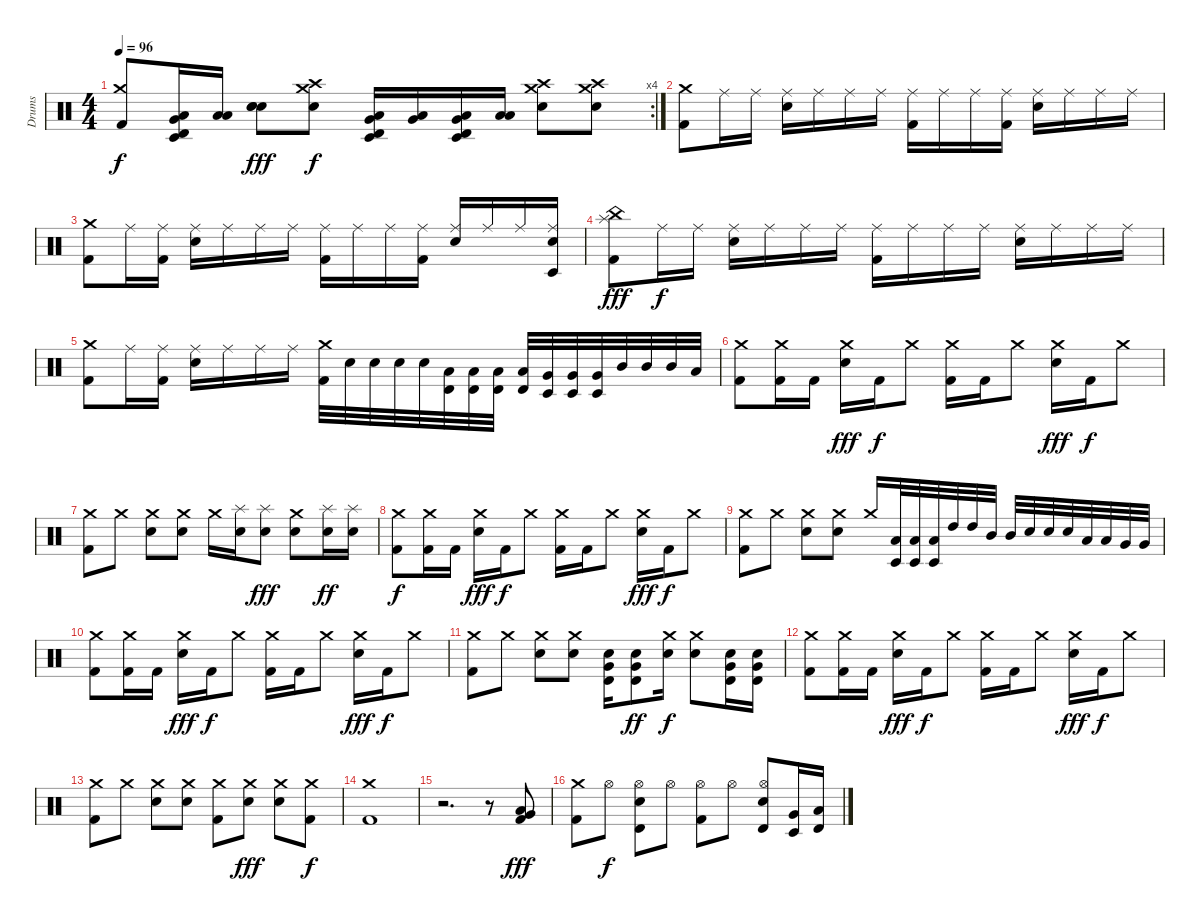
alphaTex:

\track ("Drums" "Drums") {instrument percussion}
\staff {score}
\articulation defaults
\rc 4
\ts (4 4)
\tempo 96
\clef neutral
\ks c
("Kick (hit) 2" "Crash medium (hit)").8{dy f} ("Timbale low (hit)" "Timbale high (hit)" "Low Tom (hit)" "Very Low Tom (hit)").16 ("Low Tom (hit)" "Low Tom (hit)").16 ("Electric Snare (hit)" "Electric Snare (hit)" "Electric Snare (hit)").8{dy fff} ("Electric Snare (hit)" "Crash medium (hit)" "Crash high (hit)").8{dy f} ("Timbale low (hit)" "Timbale high (hit)" "Low Tom (hit)" "Very Low Tom (hit)").16 ("Low Tom (hit)" "Very Low Tom (hit)").16 ("Timbale low (hit)" "Timbale high (hit)" "Low Tom (hit)" "Very Low Tom (hit)").16 ("Low Tom (hit)" "Low Tom (hit)").16 ("Electric Snare (hit)" "Crash medium (hit)" "Crash high (hit)").8 ("Electric Snare (hit)" "Crash medium (hit)" "Crash high (hit)").8 |
("Kick (hit) 2" "Crash medium (hit)").8 "Ride (middle)".16 "Ride (middle)".16 ("Electric Snare (hit)" "Ride (middle)").16 "Ride (middle)".16 "Ride (middle)".16 "Ride (middle)".16 ("Kick (hit) 2" "Ride (middle)").16 "Ride (middle)".16 "Ride (middle)".16 ("Kick (hit) 2" "Ride (middle)").16 ("Electric Snare (hit)" "Ride (middle)").16 "Ride (middle)".16 "Ride (middle)".16 "Ride (middle)".16 |
("Kick (hit) 2" "Crash medium (hit)").8 "Ride (middle)".16 ("Kick (hit) 2" "Ride (middle)").16 ("Electric Snare (hit)" "Ride (middle)").16 "Ride (middle)".16 "Ride (middle)".16 "Ride (middle)".16 ("Kick (hit) 2" "Ride (middle)").16 "Ride (middle)".16 "Ride (middle)".16 ("Kick (hit) 2" "Ride (middle)").16 ("Electric Snare (hit)" "Ride (middle)").16 "Ride (middle)".16 "Ride (middle)".16 ("Timbale low (hit)" "Electric Snare (hit)" "Ride (middle)").16 |
("China (hit)" "Kick (hit) 2" "Splash (hit)").8{dy fff} "Ride (middle)".16{dy f} "Ride (middle)".16 ("Electric Snare (hit)" "Ride (middle)").16 "Ride (middle)".16 "Ride (middle)".16 "Ride (middle)".16 ("Kick (hit) 2" "Ride (middle)").16 "Ride (middle)".16 "Ride (middle)".16 "Ride (middle)".16 ("Electric Snare (hit)" "Ride (middle)").16 "Ride (middle)".16 "Ride (middle)".16 "Ride (middle)".16 |
("Kick (hit) 2" "Crash medium (hit)").8 "Ride (middle)".16 ("Kick (hit) 2" "Ride (middle)").16 ("Electric Snare (hit)" "Ride (middle)").16 "Ride (middle)".16 "Ride (middle)".16 "Ride (middle)".16 ("Kick (hit) 2" "Crash medium (hit)").32 "Electric Snare (hit)".32 "Electric Snare (hit)".32 "Electric Snare (hit)".32 "Electric Snare (hit)".32 ("Low Tom (hit)" "Timbale high (hit)").32 ("Low Tom (hit)" "Timbale high (hit)").32 ("Low Tom (hit)" "Timbale high (hit)").32 ("Low Tom (hit)" "Timbale high (hit)").32 ("Very Low Tom (hit)" "Timbale low (hit)").32 ("Very Low Tom (hit)" "Timbale low (hit)").32 ("Very Low Tom (hit)" "Timbale low (hit)").32 "Mid Tom (hit)".32 "Mid Tom (hit)".32 "Mid Tom (hit)".32 "Low Tom (hit)".32 |
("Crash medium (hit)" "Kick (hit) 2").8 ("Crash medium (hit)" "Kick (hit) 2").16 "Kick (hit) 2".16 ("Crash medium (hit)" "Electric Snare (hit)").16{dy fff} "Kick (hit) 2".16{dy f} "Crash medium (hit)".8 ("Crash medium (hit)" "Kick (hit) 2").16 "Kick (hit) 2".16 "Crash medium (hit)".8 ("Crash medium (hit)" "Electric Snare (hit)").16{dy fff} "Kick (hit) 2".16{dy f} "Crash medium (hit)".8 |
("Crash medium (hit)" "Kick (hit) 2").8 "Crash medium (hit)".8 ("Crash medium (hit)" "Electric Snare (hit)").8 ("Crash medium (hit)" "Electric Snare (hit)").8 "Crash medium (hit)".16 ("Splash (hit)" "Electric Snare (hit)").16 ("Splash (hit)" "Electric Snare (hit)").8{dy fff} ("Crash medium (hit)" "Electric Snare (hit)").8 ("Splash (hit)" "Electric Snare (hit)").16{dy ff} ("Splash (hit)" "Electric Snare (hit)").16 |
("Crash medium (hit)" "Kick (hit) 2").8{dy f} ("Crash medium (hit)" "Kick (hit) 2").16 "Kick (hit) 2".16 ("Crash medium (hit)" "Electric Snare (hit)").16{dy fff} "Kick (hit) 2".16{dy f} "Crash medium (hit)".8 ("Crash medium (hit)" "Kick (hit) 2").16 "Kick (hit) 2".16 "Crash medium (hit)".8 ("Crash medium (hit)" "Electric Snare (hit)").16{dy fff} "Kick (hit) 2".16{dy f} "Crash medium (hit)".8 |
("Crash medium (hit)" "Kick (hit) 2").8 "Crash medium (hit)".8 ("Crash medium (hit)" "Electric Snare (hit)").8 ("Crash medium (hit)" "Electric Snare (hit)").8 "Crash medium (hit)".16 ("Low Tom (hit)" "Timbale low (hit)").32 ("Low Tom (hit)" "Timbale low (hit)").32 ("Low Tom (hit)" "Timbale low (hit)").32 "High Tom (hit)".32 "High Tom (hit)".32 "Mid Tom (hit)".32 "Mid Tom (hit)".32 "Electric Snare (hit)".32 "Electric Snare (hit)".32 "Electric Snare (hit)".32 "Low Tom (hit)".32 "Low Tom (hit)".32 "Very Low Tom (hit)".32 "Very Low Tom (hit)".32 |
("Crash medium (hit)" "Kick (hit) 2").8 ("Crash medium (hit)" "Kick (hit) 2").16 "Kick (hit) 2".16 ("Crash medium (hit)" "Electric Snare (hit)").16{dy fff} "Kick (hit) 2".16{dy f} "Crash medium (hit)".8 ("Crash medium (hit)" "Kick (hit) 2").16 "Kick (hit) 2".16 "Crash medium (hit)".8 ("Crash medium (hit)" "Electric Snare (hit)").16{dy fff} "Kick (hit) 2".16{dy f} "Crash medium (hit)".8 |
("Crash medium (hit)" "Kick (hit) 2").8 "Crash medium (hit)".8 ("Crash medium (hit)" "Electric Snare (hit)").8 ("Crash medium (hit)" "Electric Snare (hit)").8 ("Very Low Tom (hit)" "Timbale high (hit)" "Electric Snare (hit)").16 ("Very Low Tom (hit)" "Timbale high (hit)" "Electric Snare (hit)").8{dy ff} ("Electric Snare (hit)" "Crash medium (hit)").16{dy f} ("Electric Snare (hit)" "Crash medium (hit)").8 ("Very Low Tom (hit)" "Timbale high (hit)" "Electric Snare (hit)").16 ("Very Low Tom (hit)" "Timbale high (hit)" "Electric Snare (hit)").16 |
("Crash medium (hit)" "Kick (hit) 2").8 ("Crash medium (hit)" "Kick (hit) 2").16 "Kick (hit) 2".16 ("Crash medium (hit)" "Electric Snare (hit)").16{dy fff} "Kick (hit) 2".16{dy f} "Crash medium (hit)".8 ("Crash medium (hit)" "Kick (hit) 2").16 "Kick (hit) 2".16 "Crash medium (hit)".8 ("Crash medium (hit)" "Electric Snare (hit)").16{dy fff} "Kick (hit) 2".16{dy f} "Crash medium (hit)".8 |
("Crash medium (hit)" "Kick (hit) 2").8 "Crash medium (hit)".8 ("Crash medium (hit)" "Electric Snare (hit)").8 ("Crash medium (hit)" "Electric Snare (hit)").8 ("Crash medium (hit)" "Kick (hit) 2").8 ("Crash medium (hit)" "Electric Snare (hit)").8{dy fff} ("Crash medium (hit)" "Electric Snare (hit)").8 ("Crash medium (hit)" "Kick (hit) 2").8{dy f} |
("Crash medium (hit)" "Kick (hit) 2").1 |
r.2{d} r.8 ("Kick (hit) 2" "Very Low Tom (hit)" "Low Floor Tom (hit)").8{dy fff} |
("Crash medium (hit)" "Kick (hit) 2").8 "Hi-Hat (open)".8{dy f} ("Timbale high (hit)" "Electric Snare (hit)" "Hi-Hat (open)").8 "Hi-Hat (open)".8 ("Kick (hit) 2" "Hi-Hat (open)").8 "Hi-Hat (open)".8 ("Timbale high (hit)" "Electric Snare (hit)" "Hi-Hat (open)").8 ("Timbale low (hit)" "Very Low Tom (hit)").16 ("Timbale high (hit)" "Low Tom (hit)").16
